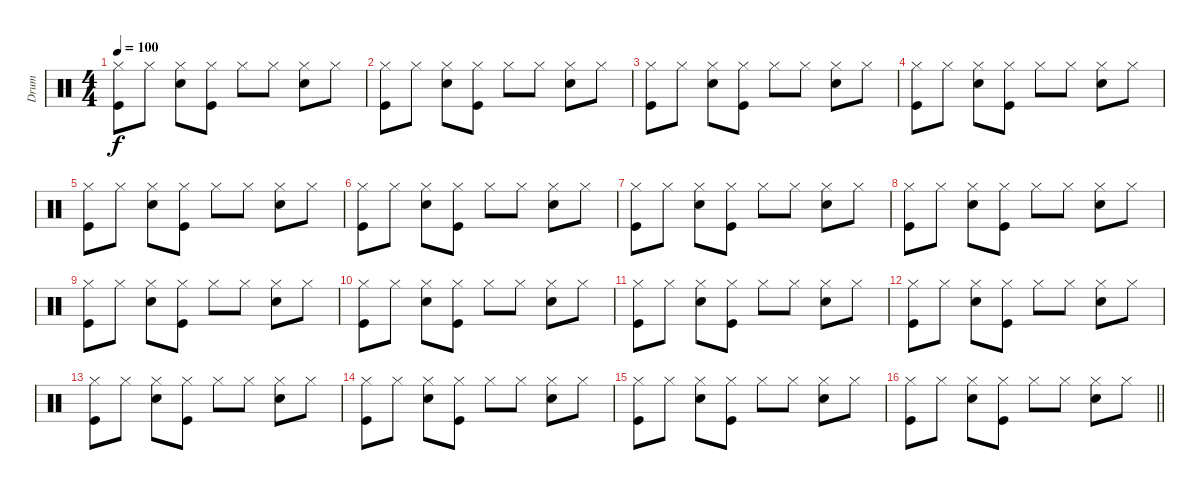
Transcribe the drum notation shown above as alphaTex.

\track ("Drum" "Drum") {instrument percussion}
\staff {score}
\articulation defaults
\ts (4 4)
\tempo 100
\clef neutral
\ks c
("Kick (hit)" "Hi-Hat (closed)").8{dy f} "Hi-Hat (closed)".8 ("Electric Snare (hit)" "Hi-Hat (closed)").8 ("Kick (hit)" "Hi-Hat (closed)").8 "Hi-Hat (closed)".8 "Hi-Hat (closed)".8 ("Electric Snare (hit)" "Hi-Hat (closed)").8 "Hi-Hat (closed)".8 |
("Kick (hit)" "Hi-Hat (closed)").8 "Hi-Hat (closed)".8 ("Electric Snare (hit)" "Hi-Hat (closed)").8 ("Kick (hit)" "Hi-Hat (closed)").8 "Hi-Hat (closed)".8 "Hi-Hat (closed)".8 ("Electric Snare (hit)" "Hi-Hat (closed)").8 "Hi-Hat (closed)".8 |
("Kick (hit)" "Hi-Hat (closed)").8 "Hi-Hat (closed)".8 ("Electric Snare (hit)" "Hi-Hat (closed)").8 ("Kick (hit)" "Hi-Hat (closed)").8 "Hi-Hat (closed)".8 "Hi-Hat (closed)".8 ("Electric Snare (hit)" "Hi-Hat (closed)").8 "Hi-Hat (closed)".8 |
("Kick (hit)" "Hi-Hat (closed)").8 "Hi-Hat (closed)".8 ("Electric Snare (hit)" "Hi-Hat (closed)").8 ("Kick (hit)" "Hi-Hat (closed)").8 "Hi-Hat (closed)".8 "Hi-Hat (closed)".8 ("Electric Snare (hit)" "Hi-Hat (closed)").8 "Hi-Hat (closed)".8 |
("Kick (hit)" "Hi-Hat (closed)").8 "Hi-Hat (closed)".8 ("Electric Snare (hit)" "Hi-Hat (closed)").8 ("Kick (hit)" "Hi-Hat (closed)").8 "Hi-Hat (closed)".8 "Hi-Hat (closed)".8 ("Electric Snare (hit)" "Hi-Hat (closed)").8 "Hi-Hat (closed)".8 |
("Kick (hit)" "Hi-Hat (closed)").8 "Hi-Hat (closed)".8 ("Electric Snare (hit)" "Hi-Hat (closed)").8 ("Kick (hit)" "Hi-Hat (closed)").8 "Hi-Hat (closed)".8 "Hi-Hat (closed)".8 ("Electric Snare (hit)" "Hi-Hat (closed)").8 "Hi-Hat (closed)".8 |
("Kick (hit)" "Hi-Hat (closed)").8 "Hi-Hat (closed)".8 ("Electric Snare (hit)" "Hi-Hat (closed)").8 ("Kick (hit)" "Hi-Hat (closed)").8 "Hi-Hat (closed)".8 "Hi-Hat (closed)".8 ("Electric Snare (hit)" "Hi-Hat (closed)").8 "Hi-Hat (closed)".8 |
("Kick (hit)" "Hi-Hat (closed)").8 "Hi-Hat (closed)".8 ("Electric Snare (hit)" "Hi-Hat (closed)").8 ("Kick (hit)" "Hi-Hat (closed)").8 "Hi-Hat (closed)".8 "Hi-Hat (closed)".8 ("Electric Snare (hit)" "Hi-Hat (closed)").8 "Hi-Hat (closed)".8 |
("Kick (hit)" "Hi-Hat (closed)").8 "Hi-Hat (closed)".8 ("Electric Snare (hit)" "Hi-Hat (closed)").8 ("Kick (hit)" "Hi-Hat (closed)").8 "Hi-Hat (closed)".8 "Hi-Hat (closed)".8 ("Electric Snare (hit)" "Hi-Hat (closed)").8 "Hi-Hat (closed)".8 |
("Kick (hit)" "Hi-Hat (closed)").8 "Hi-Hat (closed)".8 ("Electric Snare (hit)" "Hi-Hat (closed)").8 ("Kick (hit)" "Hi-Hat (closed)").8 "Hi-Hat (closed)".8 "Hi-Hat (closed)".8 ("Electric Snare (hit)" "Hi-Hat (closed)").8 "Hi-Hat (closed)".8 |
("Kick (hit)" "Hi-Hat (closed)").8 "Hi-Hat (closed)".8 ("Electric Snare (hit)" "Hi-Hat (closed)").8 ("Kick (hit)" "Hi-Hat (closed)").8 "Hi-Hat (closed)".8 "Hi-Hat (closed)".8 ("Electric Snare (hit)" "Hi-Hat (closed)").8 "Hi-Hat (closed)".8 |
("Kick (hit)" "Hi-Hat (closed)").8 "Hi-Hat (closed)".8 ("Electric Snare (hit)" "Hi-Hat (closed)").8 ("Kick (hit)" "Hi-Hat (closed)").8 "Hi-Hat (closed)".8 "Hi-Hat (closed)".8 ("Electric Snare (hit)" "Hi-Hat (closed)").8 "Hi-Hat (closed)".8 |
("Kick (hit)" "Hi-Hat (closed)").8 "Hi-Hat (closed)".8 ("Electric Snare (hit)" "Hi-Hat (closed)").8 ("Kick (hit)" "Hi-Hat (closed)").8 "Hi-Hat (closed)".8 "Hi-Hat (closed)".8 ("Electric Snare (hit)" "Hi-Hat (closed)").8 "Hi-Hat (closed)".8 |
("Kick (hit)" "Hi-Hat (closed)").8 "Hi-Hat (closed)".8 ("Electric Snare (hit)" "Hi-Hat (closed)").8 ("Kick (hit)" "Hi-Hat (closed)").8 "Hi-Hat (closed)".8 "Hi-Hat (closed)".8 ("Electric Snare (hit)" "Hi-Hat (closed)").8 "Hi-Hat (closed)".8 |
("Kick (hit)" "Hi-Hat (closed)").8 "Hi-Hat (closed)".8 ("Electric Snare (hit)" "Hi-Hat (closed)").8 ("Kick (hit)" "Hi-Hat (closed)").8 "Hi-Hat (closed)".8 "Hi-Hat (closed)".8 ("Electric Snare (hit)" "Hi-Hat (closed)").8 "Hi-Hat (closed)".8 |
\barLineRight lightlight
("Kick (hit)" "Hi-Hat (closed)").8 "Hi-Hat (closed)".8 ("Electric Snare (hit)" "Hi-Hat (closed)").8 ("Kick (hit)" "Hi-Hat (closed)").8 "Hi-Hat (closed)".8 "Hi-Hat (closed)".8 ("Electric Snare (hit)" "Hi-Hat (closed)").8 "Hi-Hat (closed)".8
